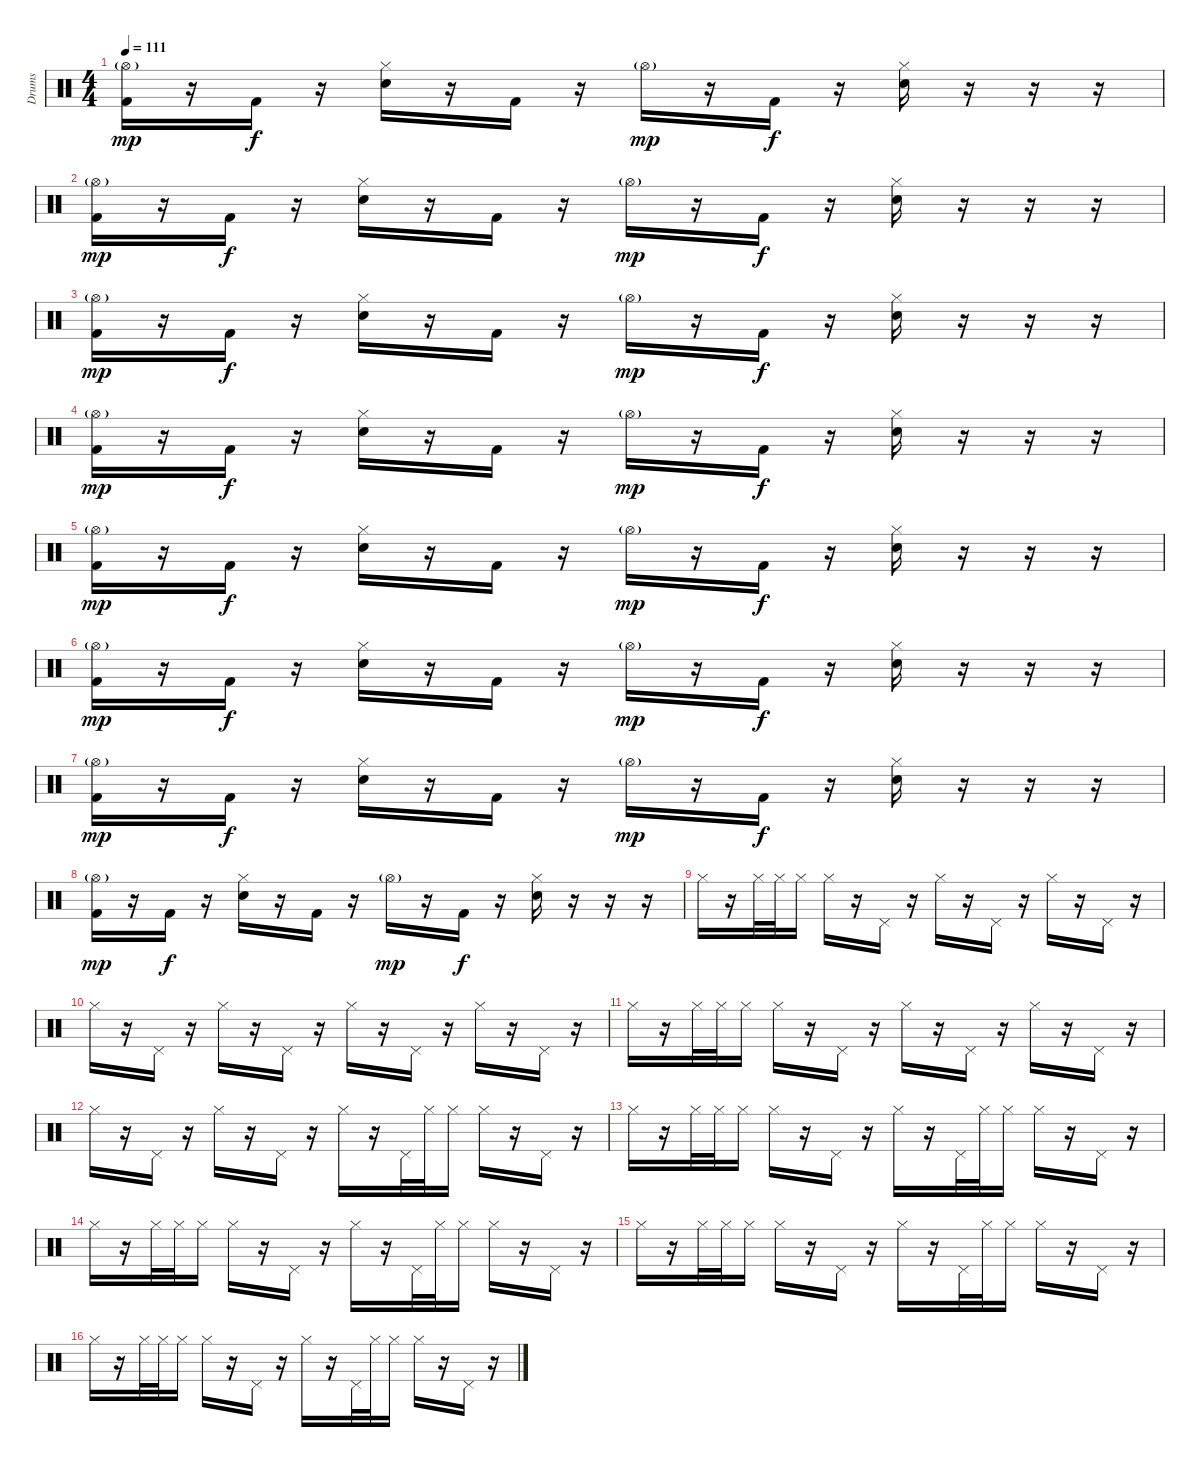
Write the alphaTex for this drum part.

\track ("Drums" "Drums") {instrument percussion}
\staff {score}
\articulation defaults
\ts (4 4)
\tempo 111
\clef neutral
\ks c
("Hi-Hat (open)"{g} "Kick (hit) 2").16{dy mp} r.16 "Kick (hit) 2".16{dy f} r.16 ("Hi-Hat (closed)" "Snare (hit) 2").16 r.16 "Kick (hit) 2".16 r.16 "Hi-Hat (open)"{g}.16{dy mp} r.16 "Kick (hit) 2".16{dy f} r.16 ("Hi-Hat (closed)" "Snare (hit) 2").16 r.16 r.16 r.16 |
("Hi-Hat (open)"{g} "Kick (hit) 2").16{dy mp} r.16 "Kick (hit) 2".16{dy f} r.16 ("Hi-Hat (closed)" "Snare (hit) 2").16 r.16 "Kick (hit) 2".16 r.16 "Hi-Hat (open)"{g}.16{dy mp} r.16 "Kick (hit) 2".16{dy f} r.16 ("Hi-Hat (closed)" "Snare (hit) 2").16 r.16 r.16 r.16 |
("Hi-Hat (open)"{g} "Kick (hit) 2").16{dy mp} r.16 "Kick (hit) 2".16{dy f} r.16 ("Hi-Hat (closed)" "Snare (hit) 2").16 r.16 "Kick (hit) 2".16 r.16 "Hi-Hat (open)"{g}.16{dy mp} r.16 "Kick (hit) 2".16{dy f} r.16 ("Hi-Hat (closed)" "Snare (hit) 2").16 r.16 r.16 r.16 |
("Hi-Hat (open)"{g} "Kick (hit) 2").16{dy mp} r.16 "Kick (hit) 2".16{dy f} r.16 ("Hi-Hat (closed)" "Snare (hit) 2").16 r.16 "Kick (hit) 2".16 r.16 "Hi-Hat (open)"{g}.16{dy mp} r.16 "Kick (hit) 2".16{dy f} r.16 ("Hi-Hat (closed)" "Snare (hit) 2").16 r.16 r.16 r.16 |
("Hi-Hat (open)"{g} "Kick (hit) 2").16{dy mp} r.16 "Kick (hit) 2".16{dy f} r.16 ("Hi-Hat (closed)" "Snare (hit) 2").16 r.16 "Kick (hit) 2".16 r.16 "Hi-Hat (open)"{g}.16{dy mp} r.16 "Kick (hit) 2".16{dy f} r.16 ("Hi-Hat (closed)" "Snare (hit) 2").16 r.16 r.16 r.16 |
("Hi-Hat (open)"{g} "Kick (hit) 2").16{dy mp} r.16 "Kick (hit) 2".16{dy f} r.16 ("Hi-Hat (closed)" "Snare (hit) 2").16 r.16 "Kick (hit) 2".16 r.16 "Hi-Hat (open)"{g}.16{dy mp} r.16 "Kick (hit) 2".16{dy f} r.16 ("Hi-Hat (closed)" "Snare (hit) 2").16 r.16 r.16 r.16 |
("Hi-Hat (open)"{g} "Kick (hit) 2").16{dy mp} r.16 "Kick (hit) 2".16{dy f} r.16 ("Hi-Hat (closed)" "Snare (hit) 2").16 r.16 "Kick (hit) 2".16 r.16 "Hi-Hat (open)"{g}.16{dy mp} r.16 "Kick (hit) 2".16{dy f} r.16 ("Hi-Hat (closed)" "Snare (hit) 2").16 r.16 r.16 r.16 |
("Hi-Hat (open)"{g} "Kick (hit) 2").16{dy mp} r.16 "Kick (hit) 2".16{dy f} r.16 ("Hi-Hat (closed)" "Snare (hit) 2").16 r.16 "Kick (hit) 2".16 r.16 "Hi-Hat (open)"{g}.16{dy mp} r.16 "Kick (hit) 2".16{dy f} r.16 ("Hi-Hat (closed)" "Snare (hit) 2").16 r.16 r.16 r.16 |
"Hi-Hat (closed)".16 r.16 "Hi-Hat (closed)".32 "Hi-Hat (closed)".32 "Hi-Hat (closed)".16 "Hi-Hat (closed)".16 r.16 "Pedal Hi-Hat (hit)".16 r.16 "Hi-Hat (closed)".16 r.16 "Pedal Hi-Hat (hit)".16 r.16 "Hi-Hat (closed)".16 r.16 "Pedal Hi-Hat (hit)".16 r.16 |
"Hi-Hat (closed)".16 r.16 "Pedal Hi-Hat (hit)".16 r.16 "Hi-Hat (closed)".16 r.16 "Pedal Hi-Hat (hit)".16 r.16 "Hi-Hat (closed)".16 r.16 "Pedal Hi-Hat (hit)".16 r.16 "Hi-Hat (closed)".16 r.16 "Pedal Hi-Hat (hit)".16 r.16 |
"Hi-Hat (closed)".16 r.16 "Hi-Hat (closed)".32 "Hi-Hat (closed)".32 "Hi-Hat (closed)".16 "Hi-Hat (closed)".16 r.16 "Pedal Hi-Hat (hit)".16 r.16 "Hi-Hat (closed)".16 r.16 "Pedal Hi-Hat (hit)".16 r.16 "Hi-Hat (closed)".16 r.16 "Pedal Hi-Hat (hit)".16 r.16 |
"Hi-Hat (closed)".16 r.16 "Pedal Hi-Hat (hit)".16 r.16 "Hi-Hat (closed)".16 r.16 "Pedal Hi-Hat (hit)".16 r.16 "Hi-Hat (closed)".16 r.16 "Pedal Hi-Hat (hit)".32 "Hi-Hat (closed)".32 "Hi-Hat (closed)".16 "Hi-Hat (closed)".16 r.16 "Pedal Hi-Hat (hit)".16 r.16 |
"Hi-Hat (closed)".16 r.16 "Hi-Hat (closed)".32 "Hi-Hat (closed)".32 "Hi-Hat (closed)".16 "Hi-Hat (closed)".16 r.16 "Pedal Hi-Hat (hit)".16 r.16 "Hi-Hat (closed)".16 r.16 "Pedal Hi-Hat (hit)".32 "Hi-Hat (closed)".32 "Hi-Hat (closed)".16 "Hi-Hat (closed)".16 r.16 "Pedal Hi-Hat (hit)".16 r.16 |
"Hi-Hat (closed)".16 r.16 "Hi-Hat (closed)".32 "Hi-Hat (closed)".32 "Hi-Hat (closed)".16 "Hi-Hat (closed)".16 r.16 "Pedal Hi-Hat (hit)".16 r.16 "Hi-Hat (closed)".16 r.16 "Pedal Hi-Hat (hit)".32 "Hi-Hat (closed)".32 "Hi-Hat (closed)".16 "Hi-Hat (closed)".16 r.16 "Pedal Hi-Hat (hit)".16 r.16 |
"Hi-Hat (closed)".16 r.16 "Hi-Hat (closed)".32 "Hi-Hat (closed)".32 "Hi-Hat (closed)".16 "Hi-Hat (closed)".16 r.16 "Pedal Hi-Hat (hit)".16 r.16 "Hi-Hat (closed)".16 r.16 "Pedal Hi-Hat (hit)".32 "Hi-Hat (closed)".32 "Hi-Hat (closed)".16 "Hi-Hat (closed)".16 r.16 "Pedal Hi-Hat (hit)".16 r.16 |
"Hi-Hat (closed)".16 r.16 "Hi-Hat (closed)".32 "Hi-Hat (closed)".32 "Hi-Hat (closed)".16 "Hi-Hat (closed)".16 r.16 "Pedal Hi-Hat (hit)".16 r.16 "Hi-Hat (closed)".16 r.16 "Pedal Hi-Hat (hit)".32 "Hi-Hat (closed)".32 "Hi-Hat (closed)".16 "Hi-Hat (closed)".16 r.16 "Pedal Hi-Hat (hit)".16 r.16
